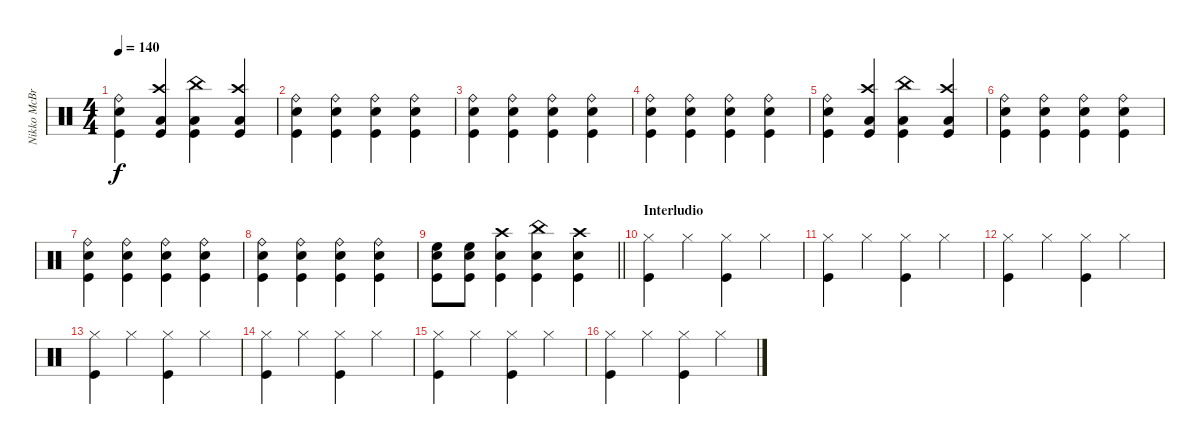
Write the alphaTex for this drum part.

\track ("Nikko McBrain" "Nikko McBr") {instrument percussion}
\staff {score}
\articulation defaults
\ts (4 4)
\tempo 140
\clef neutral
\ks c
("Ride (bell)" "Snare (hit) 2" "Kick (hit)").4{dy f} ("Crash high (hit)" "Kick (hit)" "Low Floor Tom (hit)").4 ("China (hit)" "Kick (hit)" "Low Floor Tom (hit)").4 ("Crash high (hit)" "Kick (hit)" "Low Floor Tom (hit)").4 |
("Ride (bell)" "Snare (hit) 2" "Kick (hit)").4 ("Ride (bell)" "Snare (hit) 2" "Kick (hit)").4 ("Ride (bell)" "Snare (hit) 2" "Kick (hit)").4 ("Ride (bell)" "Snare (hit) 2" "Kick (hit)").4 |
("Ride (bell)" "Snare (hit) 2" "Kick (hit)").4 ("Ride (bell)" "Snare (hit) 2" "Kick (hit)").4 ("Ride (bell)" "Snare (hit) 2" "Kick (hit)").4 ("Ride (bell)" "Snare (hit) 2" "Kick (hit)").4 |
("Ride (bell)" "Snare (hit) 2" "Kick (hit)").4 ("Ride (bell)" "Snare (hit) 2" "Kick (hit)").4 ("Ride (bell)" "Snare (hit) 2" "Kick (hit)").4 ("Ride (bell)" "Snare (hit) 2" "Kick (hit)").4 |
("Ride (bell)" "Snare (hit) 2" "Kick (hit)").4 ("Crash high (hit)" "Kick (hit)" "Low Floor Tom (hit)").4 ("China (hit)" "Kick (hit)" "Low Floor Tom (hit)").4 ("Crash high (hit)" "Kick (hit)" "Low Floor Tom (hit)").4 |
("Ride (bell)" "Snare (hit) 2" "Kick (hit)").4 ("Ride (bell)" "Snare (hit) 2" "Kick (hit)").4 ("Ride (bell)" "Snare (hit) 2" "Kick (hit)").4 ("Ride (bell)" "Snare (hit) 2" "Kick (hit)").4 |
("Ride (bell)" "Snare (hit) 2" "Kick (hit)").4 ("Ride (bell)" "Snare (hit) 2" "Kick (hit)").4 ("Ride (bell)" "Snare (hit) 2" "Kick (hit)").4 ("Ride (bell)" "Snare (hit) 2" "Kick (hit)").4 |
("Ride (bell)" "Snare (hit) 2" "Kick (hit)").4 ("Ride (bell)" "Snare (hit) 2" "Kick (hit)").4 ("Ride (bell)" "Snare (hit) 2" "Kick (hit)").4 ("Ride (bell)" "Snare (hit) 2" "Kick (hit)").4 |
\barLineRight lightlight
("High Floor Tom (hit)" "Snare (hit) 2" "Kick (hit)").8 ("High Floor Tom (hit)" "Snare (hit) 2" "Kick (hit)").8 ("Crash high (hit)" "Snare (hit) 2" "Kick (hit)").4 ("China (hit)" "Snare (hit) 2" "Kick (hit)").4 ("Crash high (hit)" "Snare (hit) 2" "Kick (hit)").4 |
\section ("" "Interludio")
("Hi-Hat (closed)" "Kick (hit)").4 "Hi-Hat (closed)".4 ("Hi-Hat (closed)" "Kick (hit)").4 "Hi-Hat (closed)".4 |
("Hi-Hat (closed)" "Kick (hit)").4 "Hi-Hat (closed)".4 ("Hi-Hat (closed)" "Kick (hit)").4 "Hi-Hat (closed)".4 |
("Hi-Hat (closed)" "Kick (hit)").4 "Hi-Hat (closed)".4 ("Hi-Hat (closed)" "Kick (hit)").4 "Hi-Hat (closed)".4 |
("Hi-Hat (closed)" "Kick (hit)").4 "Hi-Hat (closed)".4 ("Hi-Hat (closed)" "Kick (hit)").4 "Hi-Hat (closed)".4 |
("Hi-Hat (closed)" "Kick (hit)").4 "Hi-Hat (closed)".4 ("Hi-Hat (closed)" "Kick (hit)").4 "Hi-Hat (closed)".4 |
("Hi-Hat (closed)" "Kick (hit)").4 "Hi-Hat (closed)".4 ("Hi-Hat (closed)" "Kick (hit)").4 "Hi-Hat (closed)".4 |
("Hi-Hat (closed)" "Kick (hit)").4 "Hi-Hat (closed)".4 ("Hi-Hat (closed)" "Kick (hit)").4 "Hi-Hat (closed)".4
